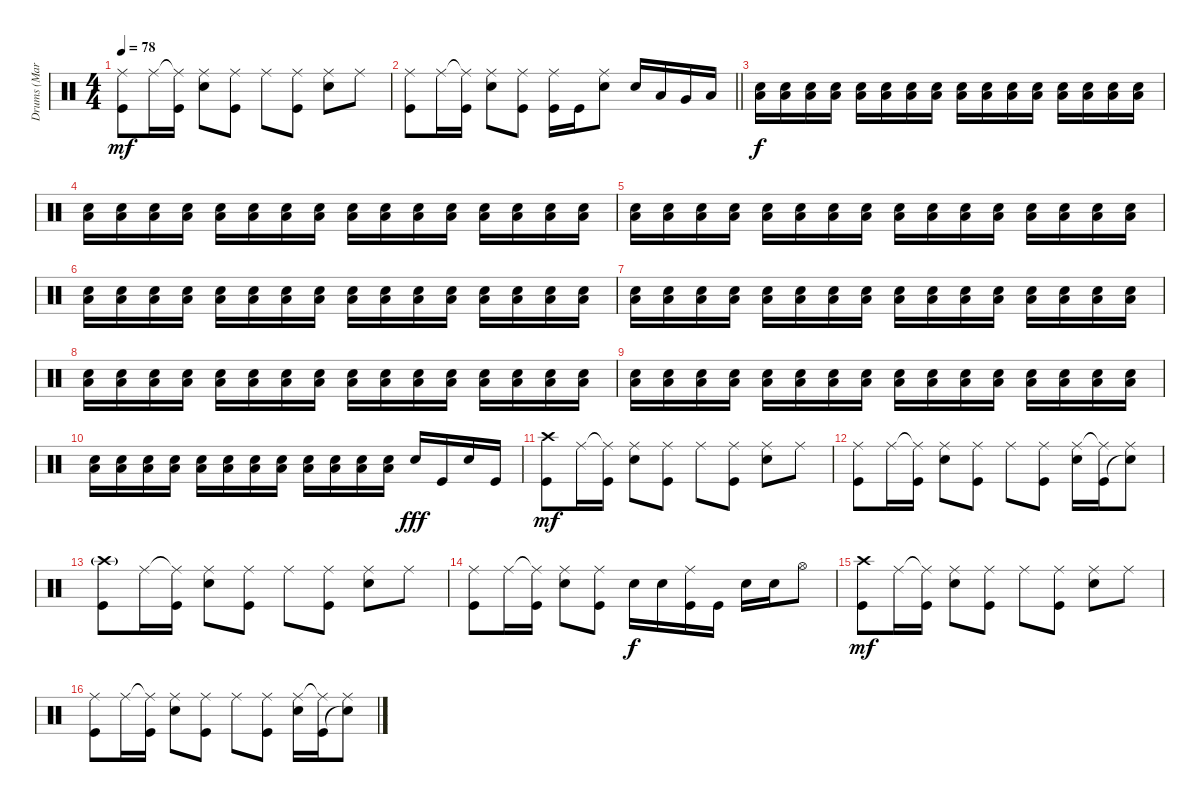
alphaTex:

\track ("Drums (Marcel Roemer)" "Drums (Mar") {instrument percussion}
\staff {score}
\articulation defaults
\ts (4 4)
\tempo 78
\clef neutral
\ks c
("Ride (middle)" "Kick (hit)").8{dy mf} "Ride (middle)".16 ("Ride (middle)"{t} "Kick (hit)").16 ("Ride (middle)" "Snare (hit) 2").8 ("Ride (middle)" "Kick (hit)").8 "Ride (middle)".8 ("Ride (middle)" "Kick (hit)").8 ("Ride (middle)" "Snare (hit) 2").8 "Ride (middle)".8 |
\barLineRight lightlight
("Ride (middle)" "Kick (hit)").8 "Ride (middle)".16 ("Ride (middle)"{t} "Kick (hit)").16 ("Ride (middle)" "Snare (hit) 2").8 ("Ride (middle)" "Kick (hit)").8 ("Ride (middle)" "Kick (hit)").16 "Kick (hit)".16 ("Ride (middle)" "Snare (hit) 2").8 "Snare (hit) 2".16 "Low Tom (hit)".16 "Very Low Tom (hit)".16 "Low Floor Tom (hit)".16 |
("Snare (hit) 2" "Low Floor Tom (hit)").16{dy f volume 8} ("Snare (hit) 2" "Low Floor Tom (hit)").16 ("Snare (hit) 2" "Low Floor Tom (hit)").16 ("Snare (hit) 2" "Low Floor Tom (hit)").16 ("Snare (hit) 2" "Low Floor Tom (hit)").16 ("Snare (hit) 2" "Low Floor Tom (hit)").16 ("Snare (hit) 2" "Low Floor Tom (hit)").16 ("Snare (hit) 2" "Low Floor Tom (hit)").16 ("Snare (hit) 2" "Low Floor Tom (hit)").16 ("Snare (hit) 2" "Low Floor Tom (hit)").16 ("Snare (hit) 2" "Low Floor Tom (hit)").16 ("Snare (hit) 2" "Low Floor Tom (hit)").16 ("Snare (hit) 2" "Low Floor Tom (hit)").16 ("Snare (hit) 2" "Low Floor Tom (hit)").16 ("Snare (hit) 2" "Low Floor Tom (hit)").16 ("Snare (hit) 2" "Low Floor Tom (hit)").16 |
("Snare (hit) 2" "Low Floor Tom (hit)").16{volume 9} ("Snare (hit) 2" "Low Floor Tom (hit)").16 ("Snare (hit) 2" "Low Floor Tom (hit)").16 ("Snare (hit) 2" "Low Floor Tom (hit)").16 ("Snare (hit) 2" "Low Floor Tom (hit)").16 ("Snare (hit) 2" "Low Floor Tom (hit)").16 ("Snare (hit) 2" "Low Floor Tom (hit)").16 ("Snare (hit) 2" "Low Floor Tom (hit)").16 ("Snare (hit) 2" "Low Floor Tom (hit)").16 ("Snare (hit) 2" "Low Floor Tom (hit)").16 ("Snare (hit) 2" "Low Floor Tom (hit)").16 ("Snare (hit) 2" "Low Floor Tom (hit)").16 ("Snare (hit) 2" "Low Floor Tom (hit)").16 ("Snare (hit) 2" "Low Floor Tom (hit)").16 ("Snare (hit) 2" "Low Floor Tom (hit)").16 ("Snare (hit) 2" "Low Floor Tom (hit)").16 |
("Snare (hit) 2" "Low Floor Tom (hit)").16{volume 10} ("Snare (hit) 2" "Low Floor Tom (hit)").16 ("Snare (hit) 2" "Low Floor Tom (hit)").16 ("Snare (hit) 2" "Low Floor Tom (hit)").16 ("Snare (hit) 2" "Low Floor Tom (hit)").16 ("Snare (hit) 2" "Low Floor Tom (hit)").16 ("Snare (hit) 2" "Low Floor Tom (hit)").16 ("Snare (hit) 2" "Low Floor Tom (hit)").16 ("Snare (hit) 2" "Low Floor Tom (hit)").16 ("Snare (hit) 2" "Low Floor Tom (hit)").16 ("Snare (hit) 2" "Low Floor Tom (hit)").16 ("Snare (hit) 2" "Low Floor Tom (hit)").16 ("Snare (hit) 2" "Low Floor Tom (hit)").16 ("Snare (hit) 2" "Low Floor Tom (hit)").16 ("Snare (hit) 2" "Low Floor Tom (hit)").16 ("Snare (hit) 2" "Low Floor Tom (hit)").16 |
("Snare (hit) 2" "Low Floor Tom (hit)").16{volume 11} ("Snare (hit) 2" "Low Floor Tom (hit)").16 ("Snare (hit) 2" "Low Floor Tom (hit)").16 ("Snare (hit) 2" "Low Floor Tom (hit)").16 ("Snare (hit) 2" "Low Floor Tom (hit)").16 ("Snare (hit) 2" "Low Floor Tom (hit)").16 ("Snare (hit) 2" "Low Floor Tom (hit)").16 ("Snare (hit) 2" "Low Floor Tom (hit)").16 ("Snare (hit) 2" "Low Floor Tom (hit)").16 ("Snare (hit) 2" "Low Floor Tom (hit)").16 ("Snare (hit) 2" "Low Floor Tom (hit)").16 ("Snare (hit) 2" "Low Floor Tom (hit)").16 ("Snare (hit) 2" "Low Floor Tom (hit)").16 ("Snare (hit) 2" "Low Floor Tom (hit)").16 ("Snare (hit) 2" "Low Floor Tom (hit)").16 ("Snare (hit) 2" "Low Floor Tom (hit)").16 |
("Snare (hit) 2" "Low Floor Tom (hit)").16{volume 12} ("Snare (hit) 2" "Low Floor Tom (hit)").16 ("Snare (hit) 2" "Low Floor Tom (hit)").16 ("Snare (hit) 2" "Low Floor Tom (hit)").16 ("Snare (hit) 2" "Low Floor Tom (hit)").16 ("Snare (hit) 2" "Low Floor Tom (hit)").16 ("Snare (hit) 2" "Low Floor Tom (hit)").16 ("Snare (hit) 2" "Low Floor Tom (hit)").16 ("Snare (hit) 2" "Low Floor Tom (hit)").16 ("Snare (hit) 2" "Low Floor Tom (hit)").16 ("Snare (hit) 2" "Low Floor Tom (hit)").16 ("Snare (hit) 2" "Low Floor Tom (hit)").16 ("Snare (hit) 2" "Low Floor Tom (hit)").16 ("Snare (hit) 2" "Low Floor Tom (hit)").16 ("Snare (hit) 2" "Low Floor Tom (hit)").16 ("Snare (hit) 2" "Low Floor Tom (hit)").16 |
("Snare (hit) 2" "Low Floor Tom (hit)").16{volume 13} ("Snare (hit) 2" "Low Floor Tom (hit)").16 ("Snare (hit) 2" "Low Floor Tom (hit)").16 ("Snare (hit) 2" "Low Floor Tom (hit)").16 ("Snare (hit) 2" "Low Floor Tom (hit)").16 ("Snare (hit) 2" "Low Floor Tom (hit)").16 ("Snare (hit) 2" "Low Floor Tom (hit)").16 ("Snare (hit) 2" "Low Floor Tom (hit)").16 ("Snare (hit) 2" "Low Floor Tom (hit)").16 ("Snare (hit) 2" "Low Floor Tom (hit)").16 ("Snare (hit) 2" "Low Floor Tom (hit)").16 ("Snare (hit) 2" "Low Floor Tom (hit)").16 ("Snare (hit) 2" "Low Floor Tom (hit)").16 ("Snare (hit) 2" "Low Floor Tom (hit)").16 ("Snare (hit) 2" "Low Floor Tom (hit)").16 ("Snare (hit) 2" "Low Floor Tom (hit)").16 |
("Snare (hit) 2" "Low Floor Tom (hit)").16{volume 14} ("Snare (hit) 2" "Low Floor Tom (hit)").16 ("Snare (hit) 2" "Low Floor Tom (hit)").16 ("Snare (hit) 2" "Low Floor Tom (hit)").16 ("Snare (hit) 2" "Low Floor Tom (hit)").16 ("Snare (hit) 2" "Low Floor Tom (hit)").16 ("Snare (hit) 2" "Low Floor Tom (hit)").16 ("Snare (hit) 2" "Low Floor Tom (hit)").16 ("Snare (hit) 2" "Low Floor Tom (hit)").16 ("Snare (hit) 2" "Low Floor Tom (hit)").16 ("Snare (hit) 2" "Low Floor Tom (hit)").16 ("Snare (hit) 2" "Low Floor Tom (hit)").16 ("Snare (hit) 2" "Low Floor Tom (hit)").16 ("Snare (hit) 2" "Low Floor Tom (hit)").16 ("Snare (hit) 2" "Low Floor Tom (hit)").16 ("Snare (hit) 2" "Low Floor Tom (hit)").16 |
("Snare (hit) 2" "Low Floor Tom (hit)").16{volume 15} ("Snare (hit) 2" "Low Floor Tom (hit)").16 ("Snare (hit) 2" "Low Floor Tom (hit)").16 ("Snare (hit) 2" "Low Floor Tom (hit)").16 ("Snare (hit) 2" "Low Floor Tom (hit)").16 ("Snare (hit) 2" "Low Floor Tom (hit)").16 ("Snare (hit) 2" "Low Floor Tom (hit)").16 ("Snare (hit) 2" "Low Floor Tom (hit)").16 ("Snare (hit) 2" "Low Floor Tom (hit)").16 ("Snare (hit) 2" "Low Floor Tom (hit)").16 ("Snare (hit) 2" "Low Floor Tom (hit)").16 ("Snare (hit) 2" "Low Floor Tom (hit)").16 "Snare (hit) 2".16{dy fff} "Kick (hit)".16 "Snare (hit) 2".16 "Kick (hit)".16 |
("Crash high (hit)" "Kick (hit)").8{dy mf} "Ride (middle)".16 ("Ride (middle)"{t} "Kick (hit)").16 ("Ride (middle)" "Snare (hit) 2").8 ("Ride (middle)" "Kick (hit)").8 "Ride (middle)".8 ("Ride (middle)" "Kick (hit)").8 ("Ride (middle)" "Snare (hit) 2").8 "Ride (middle)".8 |
("Ride (middle)" "Kick (hit)").8 "Ride (middle)".16 ("Ride (middle)"{t} "Kick (hit)").16 ("Ride (middle)" "Snare (hit) 2").8 ("Ride (middle)" "Kick (hit)").8 "Ride (middle)".8 ("Ride (middle)" "Kick (hit)").8 ("Ride (middle)" "Snare (hit) 2").16 ("Ride (middle)"{t} "Kick (hit)").16 ("Ride (middle)" "Snare (hit)"{t}).8 |
("Crash high (hit)"{g} "Kick (hit)").8 "Ride (middle)".16 ("Ride (middle)"{t} "Kick (hit)").16 ("Ride (middle)" "Snare (hit) 2").8 ("Ride (middle)" "Kick (hit)").8 "Ride (middle)".8 ("Ride (middle)" "Kick (hit)").8 ("Ride (middle)" "Snare (hit) 2").8 "Ride (middle)".8 |
("Ride (middle)" "Kick (hit)").8 "Ride (middle)".16 ("Ride (middle)"{t} "Kick (hit)").16 ("Ride (middle)" "Snare (hit) 2").8 ("Ride (middle)" "Kick (hit)").8 "Snare (hit) 2".16{dy f} "Snare (hit) 2".16 ("Ride (middle)" "Kick (hit)").16 "Kick (hit)".16 "Snare (hit) 2".16 "Snare (hit) 2".16 "Hi-Hat (open)".8 |
("Crash high (hit)" "Kick (hit)").8{dy mf} "Ride (middle)".16 ("Ride (middle)"{t} "Kick (hit)").16 ("Ride (middle)" "Snare (hit) 2").8 ("Ride (middle)" "Kick (hit)").8 "Ride (middle)".8 ("Ride (middle)" "Kick (hit)").8 ("Ride (middle)" "Snare (hit) 2").8 "Ride (middle)".8 |
("Ride (middle)" "Kick (hit)").8 "Ride (middle)".16 ("Ride (middle)"{t} "Kick (hit)").16 ("Ride (middle)" "Snare (hit) 2").8 ("Ride (middle)" "Kick (hit)").8 "Ride (middle)".8 ("Ride (middle)" "Kick (hit)").8 ("Ride (middle)" "Snare (hit) 2").16 ("Ride (middle)"{t} "Kick (hit)").16 ("Ride (middle)" "Snare (hit)"{t}).8
